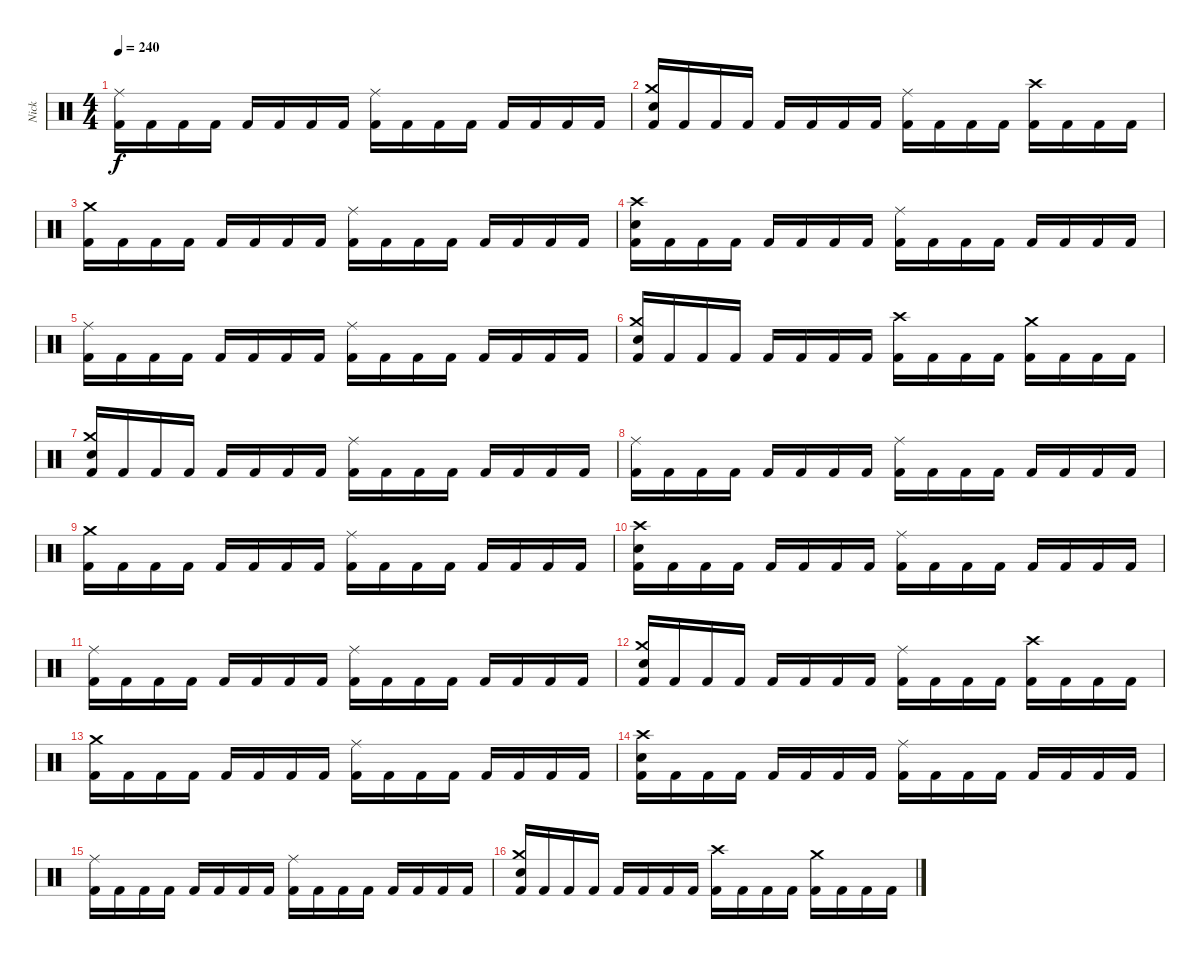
\track ("Nick" "Nick") {instrument percussion}
\staff {score}
\articulation defaults
\ts (4 4)
\tempo 240
\clef neutral
\ks c
("Ride (middle)" "Kick (hit) 2").16{dy f} "Kick (hit) 2".16 "Kick (hit) 2".16 "Kick (hit) 2".16 "Kick (hit) 2".16 "Kick (hit) 2".16 "Kick (hit) 2".16 "Kick (hit) 2".16 ("Ride (middle)" "Kick (hit) 2").16 "Kick (hit) 2".16 "Kick (hit) 2".16 "Kick (hit) 2".16 "Kick (hit) 2".16 "Kick (hit) 2".16 "Kick (hit) 2".16 "Kick (hit) 2".16 |
("Crash medium (hit)" "Electric Snare (hit)" "Kick (hit) 2").16 "Kick (hit) 2".16 "Kick (hit) 2".16 "Kick (hit) 2".16 "Kick (hit) 2".16 "Kick (hit) 2".16 "Kick (hit) 2".16 "Kick (hit) 2".16 ("Ride (middle)" "Kick (hit) 2").16 "Kick (hit) 2".16 "Kick (hit) 2".16 "Kick (hit) 2".16 ("Crash high (hit)" "Kick (hit) 2").16 "Kick (hit) 2".16 "Kick (hit) 2".16 "Kick (hit) 2".16 |
("Crash medium (hit)" "Kick (hit) 2").16 "Kick (hit) 2".16 "Kick (hit) 2".16 "Kick (hit) 2".16 "Kick (hit) 2".16 "Kick (hit) 2".16 "Kick (hit) 2".16 "Kick (hit) 2".16 ("Ride (middle)" "Kick (hit) 2").16 "Kick (hit) 2".16 "Kick (hit) 2".16 "Kick (hit) 2".16 "Kick (hit) 2".16 "Kick (hit) 2".16 "Kick (hit) 2".16 "Kick (hit) 2".16 |
("Crash high (hit)" "Electric Snare (hit)" "Kick (hit) 2").16 "Kick (hit) 2".16 "Kick (hit) 2".16 "Kick (hit) 2".16 "Kick (hit) 2".16 "Kick (hit) 2".16 "Kick (hit) 2".16 "Kick (hit) 2".16 ("Ride (middle)" "Kick (hit) 2").16 "Kick (hit) 2".16 "Kick (hit) 2".16 "Kick (hit) 2".16 "Kick (hit) 2".16 "Kick (hit) 2".16 "Kick (hit) 2".16 "Kick (hit) 2".16 |
("Ride (middle)" "Kick (hit) 2").16 "Kick (hit) 2".16 "Kick (hit) 2".16 "Kick (hit) 2".16 "Kick (hit) 2".16 "Kick (hit) 2".16 "Kick (hit) 2".16 "Kick (hit) 2".16 ("Ride (middle)" "Kick (hit) 2").16 "Kick (hit) 2".16 "Kick (hit) 2".16 "Kick (hit) 2".16 "Kick (hit) 2".16 "Kick (hit) 2".16 "Kick (hit) 2".16 "Kick (hit) 2".16 |
("Crash medium (hit)" "Electric Snare (hit)" "Kick (hit) 2").16 "Kick (hit) 2".16 "Kick (hit) 2".16 "Kick (hit) 2".16 "Kick (hit) 2".16 "Kick (hit) 2".16 "Kick (hit) 2".16 "Kick (hit) 2".16 ("Crash high (hit)" "Kick (hit) 2").16 "Kick (hit) 2".16 "Kick (hit) 2".16 "Kick (hit) 2".16 ("Crash medium (hit)" "Kick (hit) 2").16 "Kick (hit) 2".16 "Kick (hit) 2".16 "Kick (hit) 2".16 |
("Crash medium (hit)" "Electric Snare (hit)" "Kick (hit) 2").16 "Kick (hit) 2".16 "Kick (hit) 2".16 "Kick (hit) 2".16 "Kick (hit) 2".16 "Kick (hit) 2".16 "Kick (hit) 2".16 "Kick (hit) 2".16 ("Ride (middle)" "Kick (hit) 2").16 "Kick (hit) 2".16 "Kick (hit) 2".16 "Kick (hit) 2".16 "Kick (hit) 2".16 "Kick (hit) 2".16 "Kick (hit) 2".16 "Kick (hit) 2".16 |
("Ride (middle)" "Kick (hit) 2").16 "Kick (hit) 2".16 "Kick (hit) 2".16 "Kick (hit) 2".16 "Kick (hit) 2".16 "Kick (hit) 2".16 "Kick (hit) 2".16 "Kick (hit) 2".16 ("Ride (middle)" "Kick (hit) 2").16 "Kick (hit) 2".16 "Kick (hit) 2".16 "Kick (hit) 2".16 "Kick (hit) 2".16 "Kick (hit) 2".16 "Kick (hit) 2".16 "Kick (hit) 2".16 |
("Crash medium (hit)" "Kick (hit) 2").16 "Kick (hit) 2".16 "Kick (hit) 2".16 "Kick (hit) 2".16 "Kick (hit) 2".16 "Kick (hit) 2".16 "Kick (hit) 2".16 "Kick (hit) 2".16 ("Ride (middle)" "Kick (hit) 2").16 "Kick (hit) 2".16 "Kick (hit) 2".16 "Kick (hit) 2".16 "Kick (hit) 2".16 "Kick (hit) 2".16 "Kick (hit) 2".16 "Kick (hit) 2".16 |
("Crash high (hit)" "Electric Snare (hit)" "Kick (hit) 2").16 "Kick (hit) 2".16 "Kick (hit) 2".16 "Kick (hit) 2".16 "Kick (hit) 2".16 "Kick (hit) 2".16 "Kick (hit) 2".16 "Kick (hit) 2".16 ("Ride (middle)" "Kick (hit) 2").16 "Kick (hit) 2".16 "Kick (hit) 2".16 "Kick (hit) 2".16 "Kick (hit) 2".16 "Kick (hit) 2".16 "Kick (hit) 2".16 "Kick (hit) 2".16 |
("Ride (middle)" "Kick (hit) 2").16 "Kick (hit) 2".16 "Kick (hit) 2".16 "Kick (hit) 2".16 "Kick (hit) 2".16 "Kick (hit) 2".16 "Kick (hit) 2".16 "Kick (hit) 2".16 ("Ride (middle)" "Kick (hit) 2").16 "Kick (hit) 2".16 "Kick (hit) 2".16 "Kick (hit) 2".16 "Kick (hit) 2".16 "Kick (hit) 2".16 "Kick (hit) 2".16 "Kick (hit) 2".16 |
("Crash medium (hit)" "Electric Snare (hit)" "Kick (hit) 2").16 "Kick (hit) 2".16 "Kick (hit) 2".16 "Kick (hit) 2".16 "Kick (hit) 2".16 "Kick (hit) 2".16 "Kick (hit) 2".16 "Kick (hit) 2".16 ("Ride (middle)" "Kick (hit) 2").16 "Kick (hit) 2".16 "Kick (hit) 2".16 "Kick (hit) 2".16 ("Crash high (hit)" "Kick (hit) 2").16 "Kick (hit) 2".16 "Kick (hit) 2".16 "Kick (hit) 2".16 |
("Crash medium (hit)" "Kick (hit) 2").16 "Kick (hit) 2".16 "Kick (hit) 2".16 "Kick (hit) 2".16 "Kick (hit) 2".16 "Kick (hit) 2".16 "Kick (hit) 2".16 "Kick (hit) 2".16 ("Ride (middle)" "Kick (hit) 2").16 "Kick (hit) 2".16 "Kick (hit) 2".16 "Kick (hit) 2".16 "Kick (hit) 2".16 "Kick (hit) 2".16 "Kick (hit) 2".16 "Kick (hit) 2".16 |
("Crash high (hit)" "Electric Snare (hit)" "Kick (hit) 2").16 "Kick (hit) 2".16 "Kick (hit) 2".16 "Kick (hit) 2".16 "Kick (hit) 2".16 "Kick (hit) 2".16 "Kick (hit) 2".16 "Kick (hit) 2".16 ("Ride (middle)" "Kick (hit) 2").16 "Kick (hit) 2".16 "Kick (hit) 2".16 "Kick (hit) 2".16 "Kick (hit) 2".16 "Kick (hit) 2".16 "Kick (hit) 2".16 "Kick (hit) 2".16 |
("Ride (middle)" "Kick (hit) 2").16 "Kick (hit) 2".16 "Kick (hit) 2".16 "Kick (hit) 2".16 "Kick (hit) 2".16 "Kick (hit) 2".16 "Kick (hit) 2".16 "Kick (hit) 2".16 ("Ride (middle)" "Kick (hit) 2").16 "Kick (hit) 2".16 "Kick (hit) 2".16 "Kick (hit) 2".16 "Kick (hit) 2".16 "Kick (hit) 2".16 "Kick (hit) 2".16 "Kick (hit) 2".16 |
("Crash medium (hit)" "Electric Snare (hit)" "Kick (hit) 2").16 "Kick (hit) 2".16 "Kick (hit) 2".16 "Kick (hit) 2".16 "Kick (hit) 2".16 "Kick (hit) 2".16 "Kick (hit) 2".16 "Kick (hit) 2".16 ("Crash high (hit)" "Kick (hit) 2").16 "Kick (hit) 2".16 "Kick (hit) 2".16 "Kick (hit) 2".16 ("Crash medium (hit)" "Kick (hit) 2").16 "Kick (hit) 2".16 "Kick (hit) 2".16 "Kick (hit) 2".16
